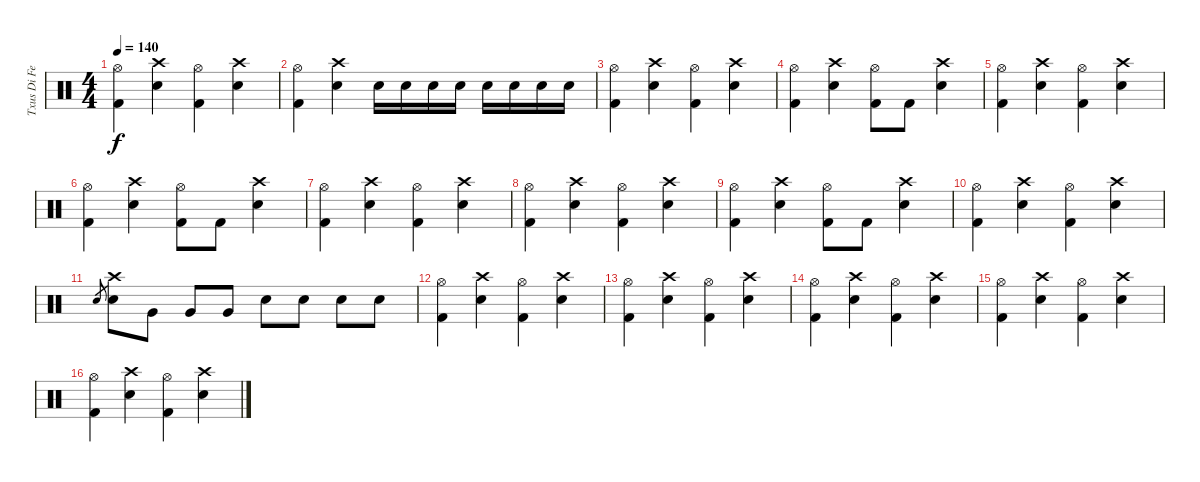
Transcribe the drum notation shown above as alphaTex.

\track ("Txus Di Fellatio" "Txus Di Fe") {instrument percussion}
\staff {score}
\articulation defaults
\ts (4 4)
\tempo 140
\clef neutral
\ks c
("Hi-Hat (open)" "Kick (hit) 2").4{dy f} ("Crash high (hit)" "Electric Snare (hit)").4 ("Hi-Hat (open)" "Kick (hit) 2").4 ("Crash high (hit)" "Electric Snare (hit)").4 |
("Hi-Hat (open)" "Kick (hit) 2").4 ("Crash high (hit)" "Electric Snare (hit)").4 "Electric Snare (hit)".16 "Electric Snare (hit)".16 "Electric Snare (hit)".16 "Electric Snare (hit)".16 "Electric Snare (hit)".16 "Electric Snare (hit)".16 "Electric Snare (hit)".16 "Electric Snare (hit)".16 |
("Hi-Hat (open)" "Kick (hit) 2").4 ("Crash high (hit)" "Electric Snare (hit)").4 ("Hi-Hat (open)" "Kick (hit) 2").4 ("Crash high (hit)" "Electric Snare (hit)").4 |
("Hi-Hat (open)" "Kick (hit) 2").4 ("Crash high (hit)" "Electric Snare (hit)").4 ("Hi-Hat (open)" "Kick (hit) 2").8 "Kick (hit) 2".8 ("Crash high (hit)" "Electric Snare (hit)").4 |
("Hi-Hat (open)" "Kick (hit) 2").4 ("Crash high (hit)" "Electric Snare (hit)").4 ("Hi-Hat (open)" "Kick (hit) 2").4 ("Crash high (hit)" "Electric Snare (hit)").4 |
("Hi-Hat (open)" "Kick (hit) 2").4 ("Crash high (hit)" "Electric Snare (hit)").4 ("Hi-Hat (open)" "Kick (hit) 2").8 "Kick (hit) 2".8 ("Crash high (hit)" "Electric Snare (hit)").4 |
("Hi-Hat (open)" "Kick (hit) 2").4 ("Crash high (hit)" "Electric Snare (hit)").4 ("Hi-Hat (open)" "Kick (hit) 2").4 ("Crash high (hit)" "Electric Snare (hit)").4 |
("Hi-Hat (open)" "Kick (hit) 2").4 ("Crash high (hit)" "Electric Snare (hit)").4 ("Hi-Hat (open)" "Kick (hit) 2").4 ("Crash high (hit)" "Electric Snare (hit)").4 |
("Hi-Hat (open)" "Kick (hit) 2").4 ("Crash high (hit)" "Electric Snare (hit)").4 ("Hi-Hat (open)" "Kick (hit) 2").8 "Kick (hit) 2".8 ("Crash high (hit)" "Electric Snare (hit)").4 |
("Hi-Hat (open)" "Kick (hit) 2").4 ("Crash high (hit)" "Electric Snare (hit)").4 ("Hi-Hat (open)" "Kick (hit) 2").4 ("Crash high (hit)" "Electric Snare (hit)").4 |
"Electric Snare (hit)".8{gr} ("Crash high (hit)" "Electric Snare (hit)").8 "Very Low Tom (hit)".8 "Very Low Tom (hit)".8 "Very Low Tom (hit)".8 "Electric Snare (hit)".8 "Electric Snare (hit)".8 "Electric Snare (hit)".8 "Electric Snare (hit)".8 |
("Hi-Hat (open)" "Kick (hit) 2").4 ("Crash high (hit)" "Electric Snare (hit)").4 ("Hi-Hat (open)" "Kick (hit) 2").4 ("Crash high (hit)" "Electric Snare (hit)").4 |
("Hi-Hat (open)" "Kick (hit) 2").4 ("Crash high (hit)" "Electric Snare (hit)").4 ("Hi-Hat (open)" "Kick (hit) 2").4 ("Crash high (hit)" "Electric Snare (hit)").4 |
("Hi-Hat (open)" "Kick (hit) 2").4 ("Crash high (hit)" "Electric Snare (hit)").4 ("Hi-Hat (open)" "Kick (hit) 2").4 ("Crash high (hit)" "Electric Snare (hit)").4 |
("Hi-Hat (open)" "Kick (hit) 2").4 ("Crash high (hit)" "Electric Snare (hit)").4 ("Hi-Hat (open)" "Kick (hit) 2").4 ("Crash high (hit)" "Electric Snare (hit)").4 |
("Hi-Hat (open)" "Kick (hit) 2").4 ("Crash high (hit)" "Electric Snare (hit)").4 ("Hi-Hat (open)" "Kick (hit) 2").4 ("Crash high (hit)" "Electric Snare (hit)").4
